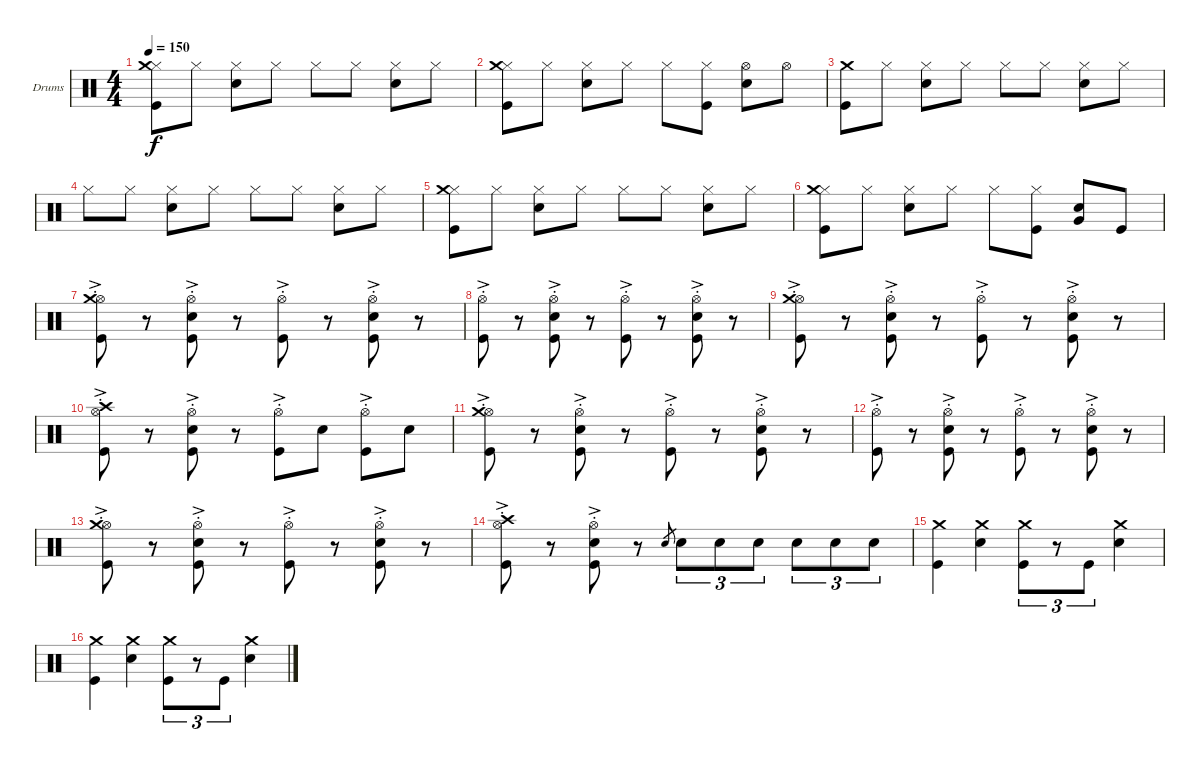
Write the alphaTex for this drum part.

\defaultSystemsLayout 4
\bracketExtendMode groupsimilarinstruments
\firstSystemTrackNameOrientation horizontal
\otherSystemsTrackNameOrientation horizontal
\track ("Drumkit" "Drums") {instrument percussion}
\staff {score}
\articulation defaults
\ts (4 4)
\tempo 150
\clef neutral
\ks c
("Hi-Hat (closed)" "Kick (hit)" "Crash medium (hit)").8{dy f} "Hi-Hat (closed)".8 ("Hi-Hat (closed)" "Snare (hit) 2").8 "Hi-Hat (closed)".8 "Hi-Hat (closed)".8 "Hi-Hat (closed)".8 ("Hi-Hat (closed)" "Snare (hit) 2").8 "Hi-Hat (closed)".8 |
("Hi-Hat (closed)" "Kick (hit)" "Crash medium (hit)").8 "Hi-Hat (closed)".8 ("Hi-Hat (closed)" "Snare (hit) 2").8 "Hi-Hat (closed)".8 "Hi-Hat (closed)".8 ("Hi-Hat (closed)" "Kick (hit)").8 ("Hi-Hat (open)" "Snare (hit) 2").8 "Hi-Hat (open)".8 |
("Kick (hit)" "Crash medium (hit)").8 "Hi-Hat (closed)".8 ("Hi-Hat (closed)" "Snare (hit) 2").8 "Hi-Hat (closed)".8 "Hi-Hat (closed)".8 "Hi-Hat (closed)".8 ("Hi-Hat (closed)" "Snare (hit) 2").8 "Hi-Hat (closed)".8 |
"Hi-Hat (closed)".8 "Hi-Hat (closed)".8 ("Hi-Hat (closed)" "Snare (hit) 2").8 "Hi-Hat (closed)".8 "Hi-Hat (closed)".8 "Hi-Hat (closed)".8 ("Hi-Hat (closed)" "Snare (hit) 2").8 "Hi-Hat (closed)".8 |
("Hi-Hat (closed)" "Kick (hit)" "Crash medium (hit)").8 "Hi-Hat (closed)".8 ("Hi-Hat (closed)" "Snare (hit) 2").8 "Hi-Hat (closed)".8 "Hi-Hat (closed)".8 "Hi-Hat (closed)".8 ("Hi-Hat (closed)" "Snare (hit) 2").8 "Hi-Hat (closed)".8 |
("Hi-Hat (closed)" "Kick (hit)" "Crash medium (hit)").8 "Hi-Hat (closed)".8 ("Hi-Hat (closed)" "Snare (hit) 2").8 "Hi-Hat (closed)".8 "Hi-Hat (closed)".8 ("Hi-Hat (closed)" "Kick (hit)").8 ("Snare (hit) 2" "Very Low Tom (hit)").8 "Kick (hit)".8 |
("Kick (hit)" "Hi-Hat (open)"{ac st} "Crash medium (hit)").8 r.8 ("Kick (hit)" "Snare (hit) 2" "Hi-Hat (open)"{ac st}).8 r.8 ("Kick (hit)" "Hi-Hat (open)"{ac st}).8 r.8 ("Kick (hit)" "Snare (hit) 2" "Hi-Hat (open)"{ac st}).8 r.8 |
("Kick (hit)" "Hi-Hat (open)"{ac st}).8 r.8 ("Kick (hit)" "Snare (hit) 2" "Hi-Hat (open)"{ac st}).8 r.8 ("Kick (hit)" "Hi-Hat (open)"{ac st}).8 r.8 ("Kick (hit)" "Snare (hit) 2" "Hi-Hat (open)"{ac st}).8 r.8 |
("Kick (hit)" "Hi-Hat (open)"{ac st} "Crash medium (hit)").8 r.8 ("Kick (hit)" "Snare (hit) 2" "Hi-Hat (open)"{ac st}).8 r.8 ("Kick (hit)" "Hi-Hat (open)"{ac st}).8 r.8 ("Kick (hit)" "Snare (hit) 2" "Hi-Hat (open)"{ac st}).8 r.8 |
("Kick (hit)" "Hi-Hat (open)"{ac st} "Crash high (hit)").8 r.8 ("Kick (hit)" "Snare (hit) 2" "Hi-Hat (open)"{ac st}).8 r.8 ("Kick (hit)" "Hi-Hat (open)"{ac st}).8 "Snare (hit) 2".8 ("Kick (hit)" "Hi-Hat (open)"{ac st}).8 "Snare (hit) 2".8 |
("Kick (hit)" "Hi-Hat (open)"{ac st} "Crash medium (hit)").8 r.8 ("Kick (hit)" "Snare (hit) 2" "Hi-Hat (open)"{ac st}).8 r.8 ("Kick (hit)" "Hi-Hat (open)"{ac st}).8 r.8 ("Kick (hit)" "Snare (hit) 2" "Hi-Hat (open)"{ac st}).8 r.8 |
("Kick (hit)" "Hi-Hat (open)"{ac st}).8 r.8 ("Kick (hit)" "Snare (hit) 2" "Hi-Hat (open)"{ac st}).8 r.8 ("Kick (hit)" "Hi-Hat (open)"{ac st}).8 r.8 ("Kick (hit)" "Snare (hit) 2" "Hi-Hat (open)"{ac st}).8 r.8 |
("Kick (hit)" "Hi-Hat (open)"{ac st} "Crash medium (hit)").8 r.8 ("Kick (hit)" "Snare (hit) 2" "Hi-Hat (open)"{ac st}).8 r.8 ("Kick (hit)" "Hi-Hat (open)"{ac st}).8 r.8 ("Kick (hit)" "Snare (hit) 2" "Hi-Hat (open)"{ac st}).8 r.8 |
("Kick (hit)" "Hi-Hat (open)"{ac st} "Crash high (hit)").8 r.8 ("Kick (hit)" "Snare (hit) 2" "Hi-Hat (open)"{ac st}).8 r.8 "Snare (hit) 2".8{gr} "Snare (hit) 2".8{tu (3 2)} "Snare (hit) 2".8{tu (3 2)} "Snare (hit) 2".8{tu (3 2)} "Snare (hit) 2".8{tu (3 2)} "Snare (hit) 2".8{tu (3 2)} "Snare (hit) 2".8{tu (3 2)} |
("Kick (hit)" "Crash medium (hit)").4 ("Snare (hit) 2" "Crash medium (hit)").4 ("Kick (hit)" "Crash medium (hit)").8{tu (3 2)} r.8{tu (3 2)} "Kick (hit)".8{tu (3 2)} ("Snare (hit) 2" "Crash medium (hit)").4 |
("Kick (hit)" "Crash medium (hit)").4 ("Snare (hit) 2" "Crash medium (hit)").4 ("Kick (hit)" "Crash medium (hit)").8{tu (3 2)} r.8{tu (3 2)} "Kick (hit)".8{tu (3 2)} ("Snare (hit) 2" "Crash medium (hit)").4
